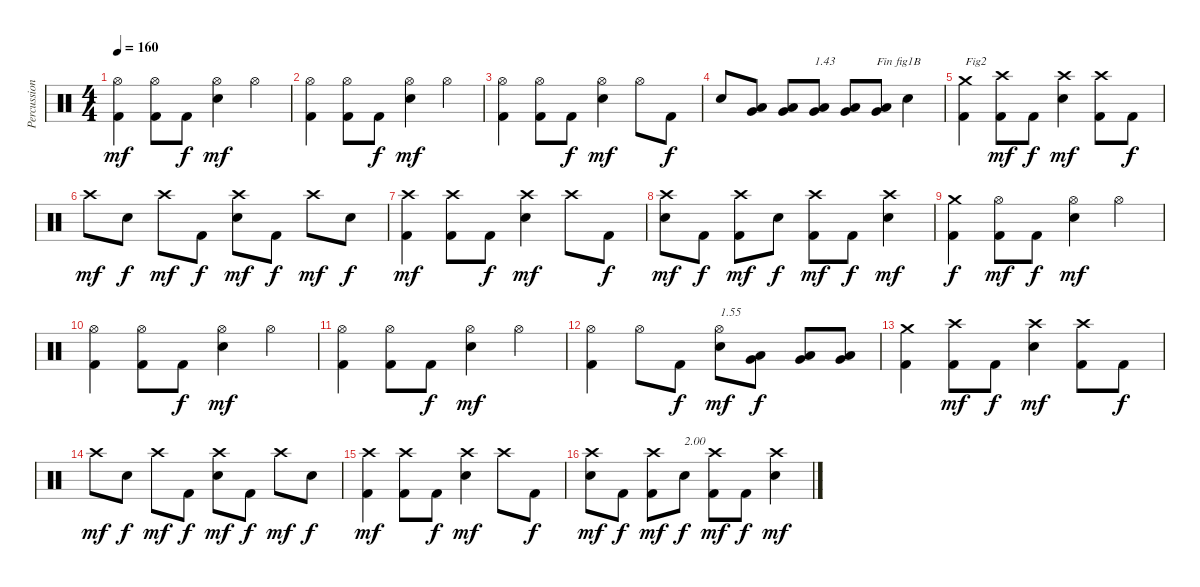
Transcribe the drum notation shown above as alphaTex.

\track ("Percussions" "Percussion") {instrument percussion}
\staff {score}
\articulation defaults
\ts (4 4)
\tempo 160
\clef neutral
\ks c
("Kick (hit) 2" "Hi-Hat (open)").4{dy mf} ("Kick (hit) 2" "Hi-Hat (open)").8 "Kick (hit) 2".8{dy f} ("Electric Snare (hit)" "Hi-Hat (open)").4{dy mf} "Hi-Hat (open)".4 |
("Kick (hit) 2" "Hi-Hat (open)").4 ("Kick (hit) 2" "Hi-Hat (open)").8 "Kick (hit) 2".8{dy f} ("Electric Snare (hit)" "Hi-Hat (open)").4{dy mf} "Hi-Hat (open)".4 |
("Kick (hit) 2" "Hi-Hat (open)").4 ("Kick (hit) 2" "Hi-Hat (open)").8 "Kick (hit) 2".8{dy f} ("Electric Snare (hit)" "Hi-Hat (open)").4{dy mf} "Hi-Hat (open)".8 "Kick (hit) 2".8{dy f} |
"Electric Snare (hit)".8 ("Very Low Tom (hit)" "Low Floor Tom (hit)").8 ("Very Low Tom (hit)" "Low Floor Tom (hit)").8 ("Very Low Tom (hit)" "Low Floor Tom (hit)").8{txt "1.43"} ("Very Low Tom (hit)" "Low Floor Tom (hit)").8 ("Very Low Tom (hit)" "Low Floor Tom (hit)").8{txt "Fin fig1B"} "Electric Snare (hit)".4 |
("Kick (hit) 2" "Crash medium (hit)").4{txt "Fig2"} ("Kick (hit) 2" "Crash high (hit)").8{dy mf} "Kick (hit) 2".8{dy f} ("Electric Snare (hit)" "Crash high (hit)").4{dy mf} ("Kick (hit) 2" "Crash high (hit)").8 "Kick (hit) 2".8{dy f} |
"Crash high (hit)".8{dy mf} "Electric Snare (hit)".8{dy f} "Crash high (hit)".8{dy mf} "Kick (hit) 2".8{dy f} ("Electric Snare (hit)" "Crash high (hit)").8{dy mf} "Kick (hit) 2".8{dy f} "Crash high (hit)".8{dy mf} "Electric Snare (hit)".8{dy f} |
("Kick (hit) 2" "Crash high (hit)").4{dy mf} ("Kick (hit) 2" "Crash high (hit)").8 "Kick (hit) 2".8{dy f} ("Electric Snare (hit)" "Crash high (hit)").4{dy mf} "Crash high (hit)".8 "Kick (hit) 2".8{dy f} |
("Electric Snare (hit)" "Crash high (hit)").8{dy mf} "Kick (hit) 2".8{dy f} ("Kick (hit) 2" "Crash high (hit)").8{dy mf} "Electric Snare (hit)".8{dy f} ("Kick (hit) 2" "Crash high (hit)").8{dy mf} "Kick (hit) 2".8{dy f} ("Electric Snare (hit)" "Crash high (hit)").4{dy mf} |
("Kick (hit) 2" "Crash medium (hit)").4{dy f} ("Kick (hit) 2" "Hi-Hat (open)").8{dy mf} "Kick (hit) 2".8{dy f} ("Electric Snare (hit)" "Hi-Hat (open)").4{dy mf} "Hi-Hat (open)".4 |
("Kick (hit) 2" "Hi-Hat (open)").4 ("Kick (hit) 2" "Hi-Hat (open)").8 "Kick (hit) 2".8{dy f} ("Electric Snare (hit)" "Hi-Hat (open)").4{dy mf} "Hi-Hat (open)".4 |
("Kick (hit) 2" "Hi-Hat (open)").4 ("Kick (hit) 2" "Hi-Hat (open)").8 "Kick (hit) 2".8{dy f} ("Electric Snare (hit)" "Hi-Hat (open)").4{dy mf} "Hi-Hat (open)".4 |
("Kick (hit) 2" "Hi-Hat (open)").4 "Hi-Hat (open)".8 "Kick (hit) 2".8{dy f} ("Electric Snare (hit)" "Hi-Hat (open)").8{txt "1.55" dy mf} ("Very Low Tom (hit)" "Low Floor Tom (hit)").8{dy f} ("Very Low Tom (hit)" "Low Floor Tom (hit)").8 ("Very Low Tom (hit)" "Low Floor Tom (hit)").8 |
("Kick (hit) 2" "Crash medium (hit)").4 ("Kick (hit) 2" "Crash high (hit)").8{dy mf} "Kick (hit) 2".8{dy f} ("Electric Snare (hit)" "Crash high (hit)").4{dy mf} ("Kick (hit) 2" "Crash high (hit)").8 "Kick (hit) 2".8{dy f} |
"Crash high (hit)".8{dy mf} "Electric Snare (hit)".8{dy f} "Crash high (hit)".8{dy mf} "Kick (hit) 2".8{dy f} ("Electric Snare (hit)" "Crash high (hit)").8{dy mf} "Kick (hit) 2".8{dy f} "Crash high (hit)".8{dy mf} "Electric Snare (hit)".8{dy f} |
("Kick (hit) 2" "Crash high (hit)").4{dy mf} ("Kick (hit) 2" "Crash high (hit)").8 "Kick (hit) 2".8{dy f} ("Electric Snare (hit)" "Crash high (hit)").4{dy mf} "Crash high (hit)".8 "Kick (hit) 2".8{dy f} |
("Electric Snare (hit)" "Crash high (hit)").8{dy mf} "Kick (hit) 2".8{dy f} ("Kick (hit) 2" "Crash high (hit)").8{dy mf} "Electric Snare (hit)".8{txt "2.00" dy f} ("Kick (hit) 2" "Crash high (hit)").8{dy mf} "Kick (hit) 2".8{dy f} ("Electric Snare (hit)" "Crash high (hit)").4{dy mf}
